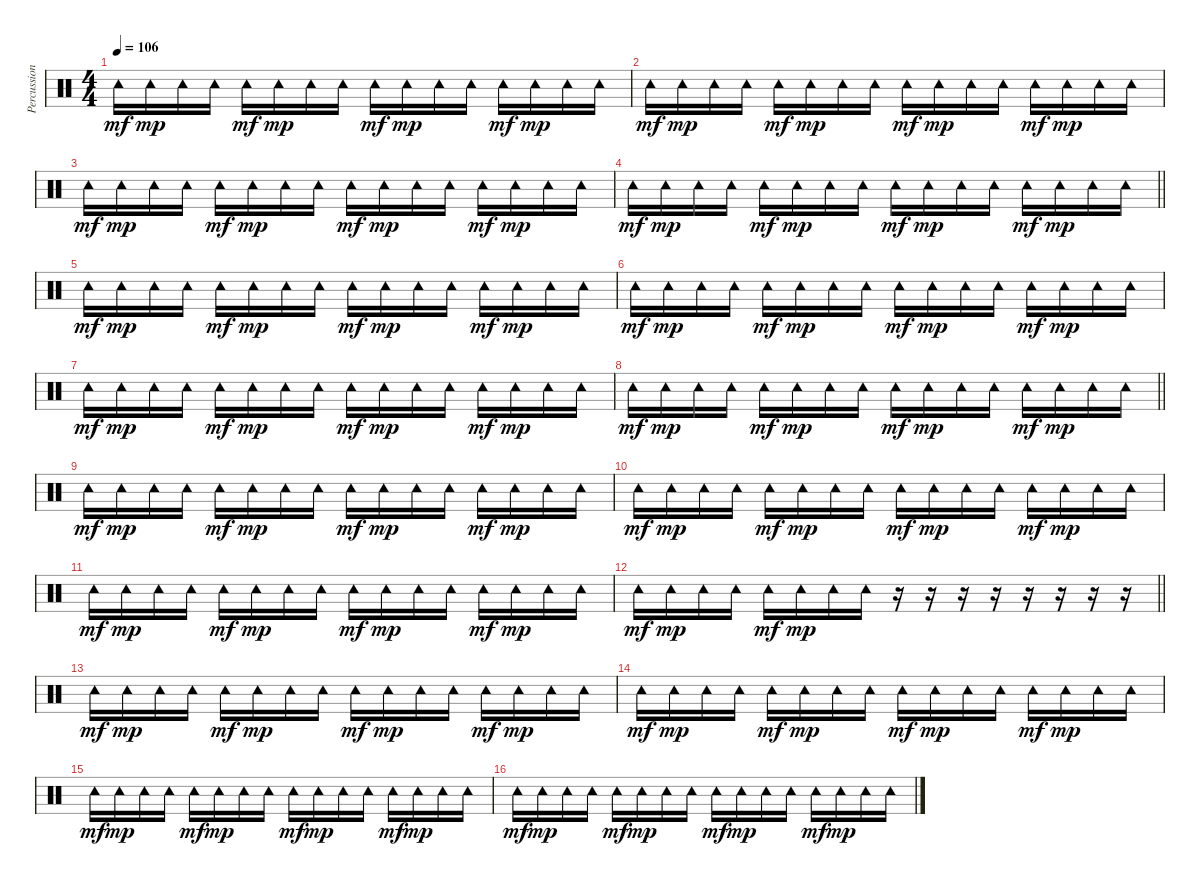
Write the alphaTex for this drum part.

\track ("Percussion" "Percussion") {instrument percussion}
\staff {score}
\articulation defaults
\ts (4 4)
\tempo 106
\clef neutral
\ks c "Tambourine (hit)".16{dy mf} "Tambourine (hit)".16{dy mp} "Tambourine (hit)".16 "Tambourine (hit)".16 "Tambourine (hit)".16{dy mf} "Tambourine (hit)".16{dy mp} "Tambourine (hit)".16 "Tambourine (hit)".16 "Tambourine (hit)".16{dy mf} "Tambourine (hit)".16{dy mp} "Tambourine (hit)".16 "Tambourine (hit)".16 "Tambourine (hit)".16{dy mf} "Tambourine (hit)".16{dy mp} "Tambourine (hit)".16 "Tambourine (hit)".16
|
"Tambourine (hit)".16{dy mf} "Tambourine (hit)".16{dy mp} "Tambourine (hit)".16 "Tambourine (hit)".16 "Tambourine (hit)".16{dy mf} "Tambourine (hit)".16{dy mp} "Tambourine (hit)".16 "Tambourine (hit)".16 "Tambourine (hit)".16{dy mf} "Tambourine (hit)".16{dy mp} "Tambourine (hit)".16 "Tambourine (hit)".16 "Tambourine (hit)".16{dy mf} "Tambourine (hit)".16{dy mp} "Tambourine (hit)".16 "Tambourine (hit)".16 |
"Tambourine (hit)".16{dy mf} "Tambourine (hit)".16{dy mp} "Tambourine (hit)".16 "Tambourine (hit)".16 "Tambourine (hit)".16{dy mf} "Tambourine (hit)".16{dy mp} "Tambourine (hit)".16 "Tambourine (hit)".16 "Tambourine (hit)".16{dy mf} "Tambourine (hit)".16{dy mp} "Tambourine (hit)".16 "Tambourine (hit)".16 "Tambourine (hit)".16{dy mf} "Tambourine (hit)".16{dy mp} "Tambourine (hit)".16 "Tambourine (hit)".16 |
\barLineRight lightlight "Tambourine (hit)".16{dy mf} "Tambourine (hit)".16{dy mp} "Tambourine (hit)".16 "Tambourine (hit)".16 "Tambourine (hit)".16{dy mf} "Tambourine (hit)".16{dy mp} "Tambourine (hit)".16 "Tambourine (hit)".16 "Tambourine (hit)".16{dy mf} "Tambourine (hit)".16{dy mp} "Tambourine (hit)".16 "Tambourine (hit)".16 "Tambourine (hit)".16{dy mf} "Tambourine (hit)".16{dy mp} "Tambourine (hit)".16 "Tambourine (hit)".16
|
"Tambourine (hit)".16{dy mf} "Tambourine (hit)".16{dy mp} "Tambourine (hit)".16 "Tambourine (hit)".16 "Tambourine (hit)".16{dy mf} "Tambourine (hit)".16{dy mp} "Tambourine (hit)".16 "Tambourine (hit)".16 "Tambourine (hit)".16{dy mf} "Tambourine (hit)".16{dy mp} "Tambourine (hit)".16 "Tambourine (hit)".16 "Tambourine (hit)".16{dy mf} "Tambourine (hit)".16{dy mp} "Tambourine (hit)".16 "Tambourine (hit)".16 |
"Tambourine (hit)".16{dy mf} "Tambourine (hit)".16{dy mp} "Tambourine (hit)".16 "Tambourine (hit)".16 "Tambourine (hit)".16{dy mf} "Tambourine (hit)".16{dy mp} "Tambourine (hit)".16 "Tambourine (hit)".16 "Tambourine (hit)".16{dy mf} "Tambourine (hit)".16{dy mp} "Tambourine (hit)".16 "Tambourine (hit)".16 "Tambourine (hit)".16{dy mf} "Tambourine (hit)".16{dy mp} "Tambourine (hit)".16 "Tambourine (hit)".16 |
"Tambourine (hit)".16{dy mf} "Tambourine (hit)".16{dy mp} "Tambourine (hit)".16 "Tambourine (hit)".16 "Tambourine (hit)".16{dy mf} "Tambourine (hit)".16{dy mp} "Tambourine (hit)".16 "Tambourine (hit)".16 "Tambourine (hit)".16{dy mf} "Tambourine (hit)".16{dy mp} "Tambourine (hit)".16 "Tambourine (hit)".16 "Tambourine (hit)".16{dy mf} "Tambourine (hit)".16{dy mp} "Tambourine (hit)".16 "Tambourine (hit)".16 |
\barLineRight lightlight "Tambourine (hit)".16{dy mf} "Tambourine (hit)".16{dy mp} "Tambourine (hit)".16 "Tambourine (hit)".16 "Tambourine (hit)".16{dy mf} "Tambourine (hit)".16{dy mp} "Tambourine (hit)".16 "Tambourine (hit)".16 "Tambourine (hit)".16{dy mf} "Tambourine (hit)".16{dy mp} "Tambourine (hit)".16 "Tambourine (hit)".16 "Tambourine (hit)".16{dy mf} "Tambourine (hit)".16{dy mp} "Tambourine (hit)".16 "Tambourine (hit)".16
|
"Tambourine (hit)".16{dy mf} "Tambourine (hit)".16{dy mp} "Tambourine (hit)".16 "Tambourine (hit)".16 "Tambourine (hit)".16{dy mf} "Tambourine (hit)".16{dy mp} "Tambourine (hit)".16 "Tambourine (hit)".16 "Tambourine (hit)".16{dy mf} "Tambourine (hit)".16{dy mp} "Tambourine (hit)".16 "Tambourine (hit)".16 "Tambourine (hit)".16{dy mf} "Tambourine (hit)".16{dy mp} "Tambourine (hit)".16 "Tambourine (hit)".16 |
"Tambourine (hit)".16{dy mf} "Tambourine (hit)".16{dy mp} "Tambourine (hit)".16 "Tambourine (hit)".16 "Tambourine (hit)".16{dy mf} "Tambourine (hit)".16{dy mp} "Tambourine (hit)".16 "Tambourine (hit)".16 "Tambourine (hit)".16{dy mf} "Tambourine (hit)".16{dy mp} "Tambourine (hit)".16 "Tambourine (hit)".16 "Tambourine (hit)".16{dy mf} "Tambourine (hit)".16{dy mp} "Tambourine (hit)".16 "Tambourine (hit)".16 |
"Tambourine (hit)".16{dy mf} "Tambourine (hit)".16{dy mp} "Tambourine (hit)".16 "Tambourine (hit)".16 "Tambourine (hit)".16{dy mf} "Tambourine (hit)".16{dy mp} "Tambourine (hit)".16 "Tambourine (hit)".16 "Tambourine (hit)".16{dy mf} "Tambourine (hit)".16{dy mp} "Tambourine (hit)".16 "Tambourine (hit)".16 "Tambourine (hit)".16{dy mf} "Tambourine (hit)".16{dy mp} "Tambourine (hit)".16 "Tambourine (hit)".16 |
\barLineRight lightlight "Tambourine (hit)".16{dy mf} "Tambourine (hit)".16{dy mp} "Tambourine (hit)".16 "Tambourine (hit)".16 "Tambourine (hit)".16{dy mf} "Tambourine (hit)".16{dy mp} "Tambourine (hit)".16 "Tambourine (hit)".16
r.16 r.16 r.16 r.16 r.16 r.16 r.16 r.16 |
"Tambourine (hit)".16{dy mf} "Tambourine (hit)".16{dy mp} "Tambourine (hit)".16 "Tambourine (hit)".16 "Tambourine (hit)".16{dy mf} "Tambourine (hit)".16{dy mp} "Tambourine (hit)".16 "Tambourine (hit)".16 "Tambourine (hit)".16{dy mf} "Tambourine (hit)".16{dy mp} "Tambourine (hit)".16 "Tambourine (hit)".16 "Tambourine (hit)".16{dy mf} "Tambourine (hit)".16{dy mp} "Tambourine (hit)".16 "Tambourine (hit)".16 |
"Tambourine (hit)".16{dy mf} "Tambourine (hit)".16{dy mp} "Tambourine (hit)".16 "Tambourine (hit)".16 "Tambourine (hit)".16{dy mf} "Tambourine (hit)".16{dy mp} "Tambourine (hit)".16 "Tambourine (hit)".16 "Tambourine (hit)".16{dy mf} "Tambourine (hit)".16{dy mp} "Tambourine (hit)".16 "Tambourine (hit)".16 "Tambourine (hit)".16{dy mf} "Tambourine (hit)".16{dy mp} "Tambourine (hit)".16 "Tambourine (hit)".16 |
"Tambourine (hit)".16{dy mf} "Tambourine (hit)".16{dy mp} "Tambourine (hit)".16 "Tambourine (hit)".16 "Tambourine (hit)".16{dy mf} "Tambourine (hit)".16{dy mp} "Tambourine (hit)".16 "Tambourine (hit)".16 "Tambourine (hit)".16{dy mf} "Tambourine (hit)".16{dy mp} "Tambourine (hit)".16 "Tambourine (hit)".16 "Tambourine (hit)".16{dy mf} "Tambourine (hit)".16{dy mp} "Tambourine (hit)".16 "Tambourine (hit)".16 |
"Tambourine (hit)".16{dy mf} "Tambourine (hit)".16{dy mp} "Tambourine (hit)".16 "Tambourine (hit)".16 "Tambourine (hit)".16{dy mf} "Tambourine (hit)".16{dy mp} "Tambourine (hit)".16 "Tambourine (hit)".16 "Tambourine (hit)".16{dy mf} "Tambourine (hit)".16{dy mp} "Tambourine (hit)".16 "Tambourine (hit)".16 "Tambourine (hit)".16{dy mf} "Tambourine (hit)".16{dy mp} "Tambourine (hit)".16 "Tambourine (hit)".16
